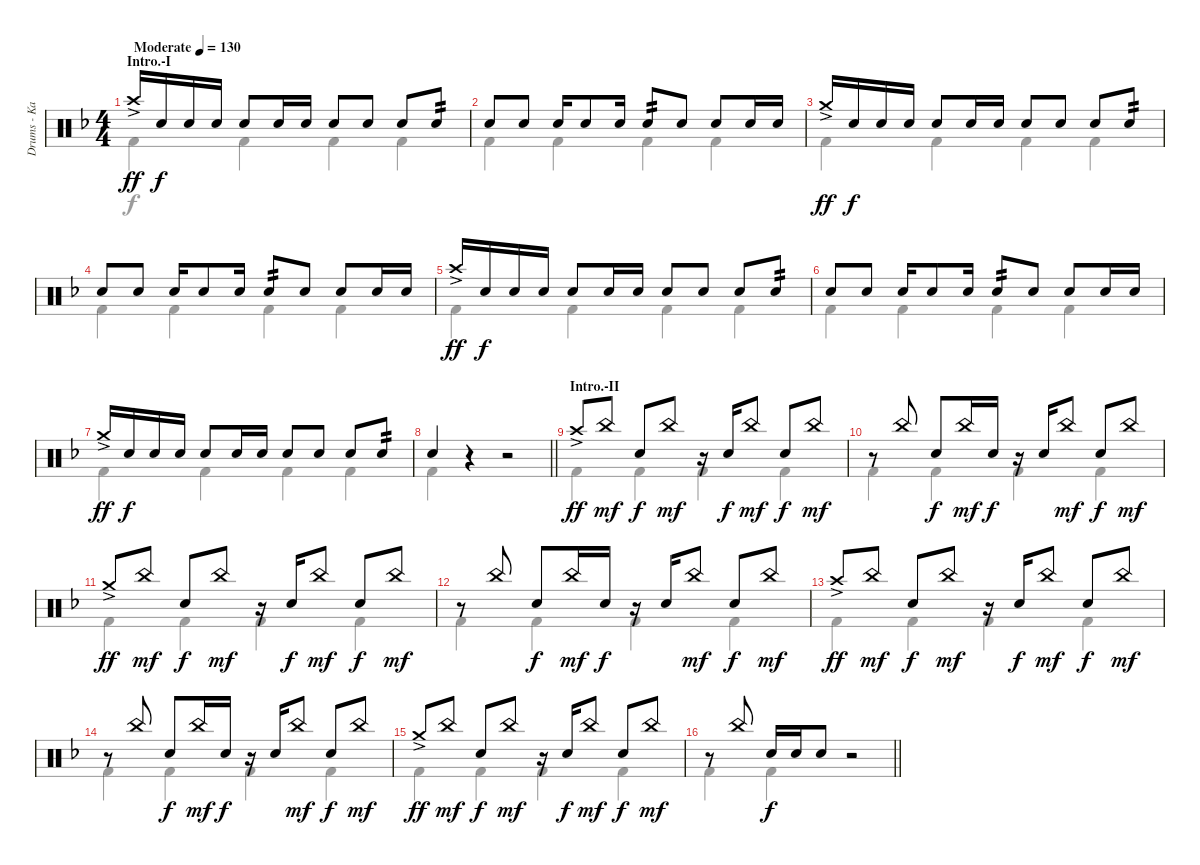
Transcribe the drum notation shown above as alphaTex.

\track ("Drums - Kai" "Drums - Ka") {instrument percussion}
\staff {score}
\articulation defaults
\voice
\ts (4 4)
\section ("" "Intro.-I")
\tempo (130 "Moderate")
\clef neutral
\ks f "Crash high (hit)"{ac}.16{dy ff} "Electric Snare (hit)".16{dy f} "Electric Snare (hit)".16 "Electric Snare (hit)".16 "Electric Snare (hit)".8 "Electric Snare (hit)".16 "Electric Snare (hit)".16 "Electric Snare (hit)".8 "Electric Snare (hit)".8 "Electric Snare (hit)".8 "Electric Snare (hit)".8{tp 2}
|
"Electric Snare (hit)".8 "Electric Snare (hit)".8 "Electric Snare (hit)".16 "Electric Snare (hit)".8 "Electric Snare (hit)".16 "Electric Snare (hit)".8{tp 2} "Electric Snare (hit)".8 "Electric Snare (hit)".8 "Electric Snare (hit)".16 "Electric Snare (hit)".16 |
"Crash medium (hit)"{ac}.16{dy ff} "Electric Snare (hit)".16{dy f} "Electric Snare (hit)".16 "Electric Snare (hit)".16 "Electric Snare (hit)".8 "Electric Snare (hit)".16 "Electric Snare (hit)".16 "Electric Snare (hit)".8 "Electric Snare (hit)".8 "Electric Snare (hit)".8 "Electric Snare (hit)".8{tp 2} |
"Electric Snare (hit)".8 "Electric Snare (hit)".8 "Electric Snare (hit)".16 "Electric Snare (hit)".8 "Electric Snare (hit)".16 "Electric Snare (hit)".8{tp 2} "Electric Snare (hit)".8 "Electric Snare (hit)".8 "Electric Snare (hit)".16 "Electric Snare (hit)".16 |
"Crash high (hit)"{ac}.16{dy ff} "Electric Snare (hit)".16{dy f} "Electric Snare (hit)".16 "Electric Snare (hit)".16 "Electric Snare (hit)".8 "Electric Snare (hit)".16 "Electric Snare (hit)".16 "Electric Snare (hit)".8 "Electric Snare (hit)".8 "Electric Snare (hit)".8 "Electric Snare (hit)".8{tp 2} |
"Electric Snare (hit)".8 "Electric Snare (hit)".8 "Electric Snare (hit)".16 "Electric Snare (hit)".8 "Electric Snare (hit)".16 "Electric Snare (hit)".8{tp 2} "Electric Snare (hit)".8 "Electric Snare (hit)".8 "Electric Snare (hit)".16 "Electric Snare (hit)".16 |
"Crash medium (hit)"{ac}.16{dy ff} "Electric Snare (hit)".16{dy f} "Electric Snare (hit)".16 "Electric Snare (hit)".16 "Electric Snare (hit)".8 "Electric Snare (hit)".16 "Electric Snare (hit)".16 "Electric Snare (hit)".8 "Electric Snare (hit)".8 "Electric Snare (hit)".8 "Electric Snare (hit)".8{tp 2} |
\barLineRight lightlight "Electric Snare (hit)".4
r.4 r.2 |
\section ("" "Intro.-II")
"Crash high (hit)"{ac}.8{dy ff} "China (hit)".8{dy mf} "Electric Snare (hit)".8{dy f} "China (hit)".8{dy mf} r.16 "Electric Snare (hit)".16{dy f} "China (hit)".8{dy mf} "Electric Snare (hit)".8{dy f} "China (hit)".8{dy mf} |
r.8 "China (hit)".8 "Electric Snare (hit)".8{dy f} "China (hit)".16{dy mf} "Electric Snare (hit)".16{dy f} r.16 "Electric Snare (hit)".16 "China (hit)".8{dy mf} "Electric Snare (hit)".8{dy f} "China (hit)".8{dy mf} |
"Crash medium (hit)"{ac}.8{dy ff} "China (hit)".8{dy mf} "Electric Snare (hit)".8{dy f} "China (hit)".8{dy mf} r.16 "Electric Snare (hit)".16{dy f} "China (hit)".8{dy mf} "Electric Snare (hit)".8{dy f} "China (hit)".8{dy mf} |
r.8 "China (hit)".8 "Electric Snare (hit)".8{dy f} "China (hit)".16{dy mf} "Electric Snare (hit)".16{dy f} r.16 "Electric Snare (hit)".16 "China (hit)".8{dy mf} "Electric Snare (hit)".8{dy f} "China (hit)".8{dy mf} |
"Crash high (hit)"{ac}.8{dy ff} "China (hit)".8{dy mf} "Electric Snare (hit)".8{dy f} "China (hit)".8{dy mf} r.16 "Electric Snare (hit)".16{dy f} "China (hit)".8{dy mf} "Electric Snare (hit)".8{dy f} "China (hit)".8{dy mf} |
r.8 "China (hit)".8 "Electric Snare (hit)".8{dy f} "China (hit)".16{dy mf} "Electric Snare (hit)".16{dy f} r.16 "Electric Snare (hit)".16 "China (hit)".8{dy mf} "Electric Snare (hit)".8{dy f} "China (hit)".8{dy mf} |
"Crash medium (hit)"{ac}.8{dy ff} "China (hit)".8{dy mf} "Electric Snare (hit)".8{dy f} "China (hit)".8{dy mf} r.16 "Electric Snare (hit)".16{dy f} "China (hit)".8{dy mf} "Electric Snare (hit)".8{dy f} "China (hit)".8{dy mf} |
\barLineRight lightlight
r.8 "China (hit)".8 "Electric Snare (hit)".16{dy f} "Electric Snare (hit)".16 "Electric Snare (hit)".8 r.2
\voice
\clef neutral
\ottava regular
\simile none
\ks f "Kick (hit) 2".4{dy f} "Kick (hit) 2".4 "Kick (hit) 2".4 "Kick (hit) 2".4
|
"Kick (hit) 2".4 "Kick (hit) 2".4 "Kick (hit) 2".4 "Kick (hit) 2".4 |
"Kick (hit) 2".4 "Kick (hit) 2".4 "Kick (hit) 2".4 "Kick (hit) 2".4 |
"Kick (hit) 2".4 "Kick (hit) 2".4 "Kick (hit) 2".4 "Kick (hit) 2".4 |
"Kick (hit) 2".4 "Kick (hit) 2".4 "Kick (hit) 2".4 "Kick (hit) 2".4 |
"Kick (hit) 2".4 "Kick (hit) 2".4 "Kick (hit) 2".4 "Kick (hit) 2".4 |
"Kick (hit) 2".4 "Kick (hit) 2".4 "Kick (hit) 2".4 "Kick (hit) 2".4 |
\barLineRight lightlight "Kick (hit) 2".4
r.4 r.2 |
"Kick (hit) 2".4 "Kick (hit) 2".4 "Kick (hit) 2".4 "Kick (hit) 2".4 |
"Kick (hit) 2".4 "Kick (hit) 2".4 "Kick (hit) 2".4 "Kick (hit) 2".4 |
"Kick (hit) 2".4 "Kick (hit) 2".4 "Kick (hit) 2".4 "Kick (hit) 2".4 |
"Kick (hit) 2".4 "Kick (hit) 2".4 "Kick (hit) 2".4 "Kick (hit) 2".4 |
"Kick (hit) 2".4 "Kick (hit) 2".4 "Kick (hit) 2".4 "Kick (hit) 2".4 |
"Kick (hit) 2".4 "Kick (hit) 2".4 "Kick (hit) 2".4 "Kick (hit) 2".4 |
"Kick (hit) 2".4 "Kick (hit) 2".4 "Kick (hit) 2".4 "Kick (hit) 2".4 |
\barLineRight lightlight "Kick (hit) 2".4 "Kick (hit) 2".4
r.2
